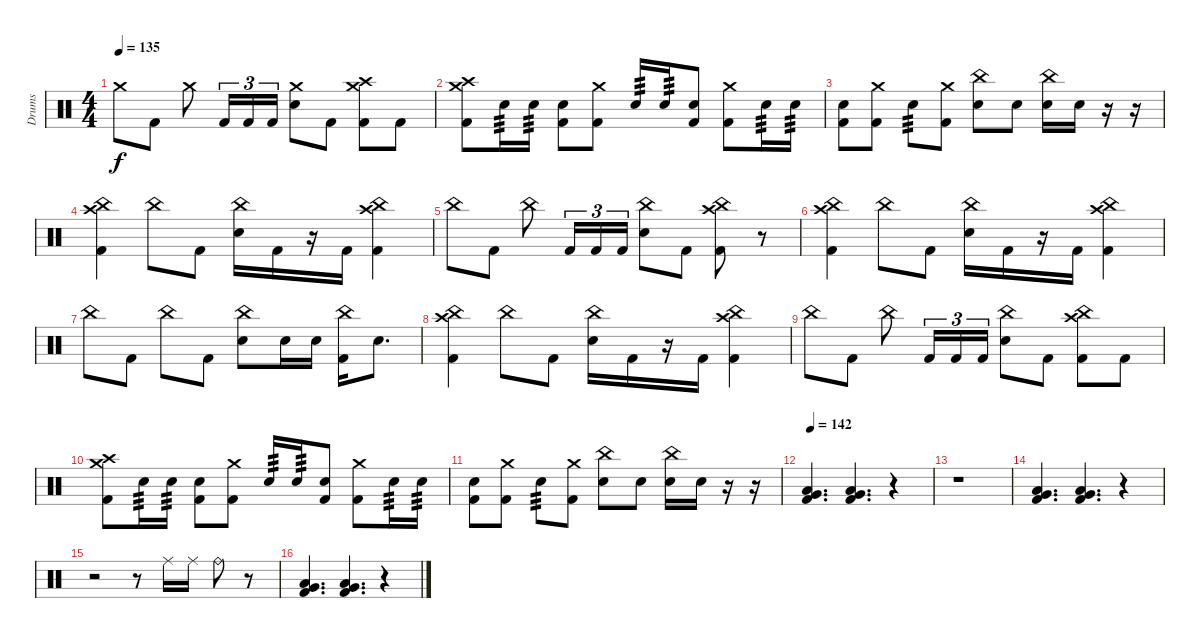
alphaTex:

\track ("Drums" "Drums") {instrument percussion}
\staff {score}
\articulation defaults
\ts (4 4)
\tempo 135
\clef neutral
\ks c "Crash medium (hit)".8{dy f} "Kick (hit) 2".8 "Crash medium (hit)".8 "Kick (hit) 2".16{tu (3 2)} "Kick (hit) 2".16{tu (3 2)} "Kick (hit) 2".16{tu (3 2)}
("Crash medium (hit)" "Electric Snare (hit)").8 "Kick (hit) 2".8 ("Crash medium (hit)" "Crash high (hit)" "Kick (hit) 2").8 "Kick (hit) 2".8 |
("Crash medium (hit)" "Crash high (hit)" "Kick (hit) 2").8 "Electric Snare (hit)".16{tp 3} "Electric Snare (hit)".16{tp 3} ("Electric Snare (hit)" "Kick (hit) 2").8 ("Crash medium (hit)" "Kick (hit) 2").8 "Electric Snare (hit)".16{tp 3} "Electric Snare (hit)".16{tp 3} ("Electric Snare (hit)" "Kick (hit) 2").8 ("Crash medium (hit)" "Kick (hit) 2").8 "Electric Snare (hit)".16{tp 3} "Electric Snare (hit)".16{tp 3} |
("Electric Snare (hit)" "Kick (hit) 2").8 ("Crash medium (hit)" "Kick (hit) 2").8 "Electric Snare (hit)".8{tp 3} ("Crash medium (hit)" "Kick (hit) 2").8 ("China (hit)" "Electric Snare (hit)").8 "Electric Snare (hit)".8 ("China (hit)" "Electric Snare (hit)").16 "Electric Snare (hit)".16 r.16 r.16 |
("China (hit)" "Crash high (hit)" "Kick (hit) 2").4 "China (hit)".8 "Kick (hit) 2".8 ("China (hit)" "Electric Snare (hit)").16 "Kick (hit) 2".16 r.16 "Kick (hit) 2".16 ("China (hit)" "Crash high (hit)" "Kick (hit) 2").4 |
"China (hit)".8 "Kick (hit) 2".8 "China (hit)".8 "Kick (hit) 2".16{tu (3 2)} "Kick (hit) 2".16{tu (3 2)} "Kick (hit) 2".16{tu (3 2)} ("China (hit)" "Electric Snare (hit)").8 "Kick (hit) 2".8 ("China (hit)" "Crash high (hit)" "Kick (hit) 2").8 r.8 |
("China (hit)" "Crash high (hit)" "Kick (hit) 2").4 "China (hit)".8 "Kick (hit) 2".8 ("China (hit)" "Electric Snare (hit)").16 "Kick (hit) 2".16 r.16 "Kick (hit) 2".16 ("China (hit)" "Crash high (hit)" "Kick (hit) 2").4 |
"China (hit)".8 "Kick (hit) 2".8 "China (hit)".8 "Kick (hit) 2".8 ("China (hit)" "Electric Snare (hit)").8 "Electric Snare (hit)".16 "Electric Snare (hit)".16 ("China (hit)" "Kick (hit) 2").16 "Electric Snare (hit)".8{d} |
("China (hit)" "Crash high (hit)" "Kick (hit) 2").4 "China (hit)".8 "Kick (hit) 2".8 ("China (hit)" "Electric Snare (hit)").16 "Kick (hit) 2".16 r.16 "Kick (hit) 2".16 ("China (hit)" "Crash high (hit)" "Kick (hit) 2").4 |
"China (hit)".8 "Kick (hit) 2".8 "China (hit)".8 "Kick (hit) 2".16{tu (3 2)} "Kick (hit) 2".16{tu (3 2)} "Kick (hit) 2".16{tu (3 2)} ("China (hit)" "Electric Snare (hit)").8 "Kick (hit) 2".8 ("China (hit)" "Crash high (hit)" "Kick (hit) 2").8 "Kick (hit) 2".8 |
("Crash medium (hit)" "Crash high (hit)" "Kick (hit) 2").8 "Electric Snare (hit)".16{tp 3} "Electric Snare (hit)".16{tp 3} ("Electric Snare (hit)" "Kick (hit) 2").8 ("Crash medium (hit)" "Kick (hit) 2").8 "Electric Snare (hit)".16{tp 3} "Electric Snare (hit)".16{tp 3} ("Electric Snare (hit)" "Kick (hit) 2").8 ("Crash medium (hit)" "Kick (hit) 2").8 "Electric Snare (hit)".16{tp 3} "Electric Snare (hit)".16{tp 3} |
("Electric Snare (hit)" "Kick (hit) 2").8 ("Crash medium (hit)" "Kick (hit) 2").8 "Electric Snare (hit)".8{tp 3} ("Crash medium (hit)" "Kick (hit) 2").8 ("China (hit)" "Electric Snare (hit)").8 "Electric Snare (hit)".8 ("China (hit)" "Electric Snare (hit)").16 "Electric Snare (hit)".16 r.16 r.16 |
\tempo 142
("Very Low Tom (hit)" "Low Floor Tom (hit)" "Kick (hit) 2").4{d} ("Very Low Tom (hit)" "Low Floor Tom (hit)" "Kick (hit) 2").4{d} r.4 |
r.1 |
("Very Low Tom (hit)" "Low Floor Tom (hit)" "Kick (hit) 2").4{d} ("Very Low Tom (hit)" "Low Floor Tom (hit)" "Kick (hit) 2").4{d} r.4 |
r.2 r.8 "Ride (middle)".16 "Ride (middle)".16 "Ride (bell)".8 r.8 |
("Very Low Tom (hit)" "Low Floor Tom (hit)" "Kick (hit) 2").4{d} ("Very Low Tom (hit)" "Low Floor Tom (hit)" "Kick (hit) 2").4{d} r.4
